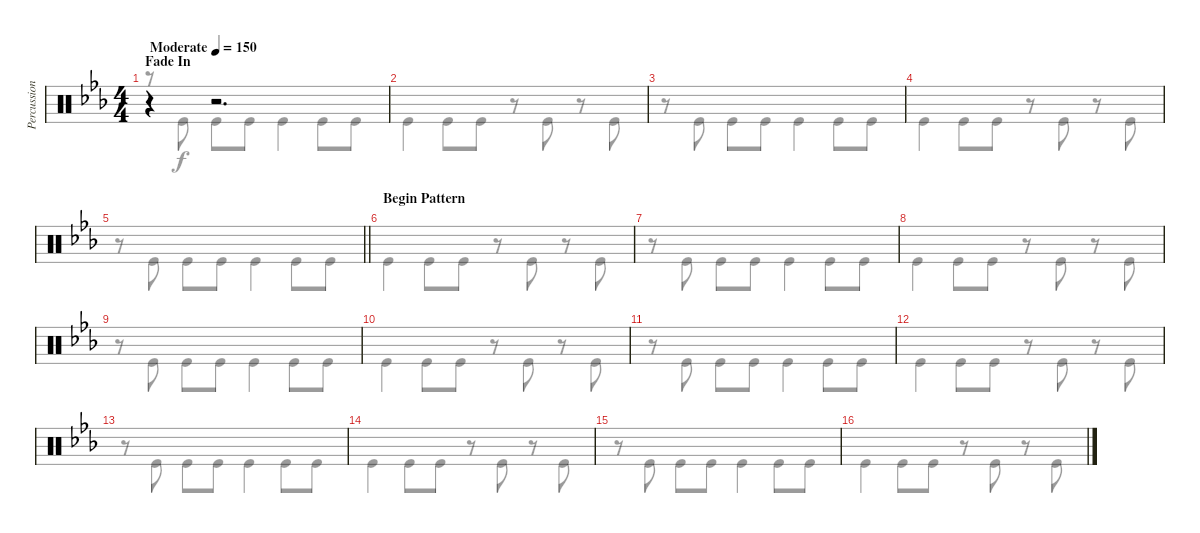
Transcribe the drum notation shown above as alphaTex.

\track ("Percussion" "Percussion") {instrument percussion}
\staff {score}
\articulation defaults
\voice
\ts (4 4)
\section ("" "Fade In")
\tempo (150 "Moderate")
\clef neutral
\ks cminor
r.4{dy f volume 0} r.2{d volume 7} |
|
|
|
\barLineRight lightlight
|
\section ("" "Begin Pattern")
|
|
|
|
|
|
|
|
|
|
\voice
\clef neutral
\ottava regular
\simile none
\ks cminor
r.8{dy f} "Kick (hit)".8 "Kick (hit)".8 "Kick (hit)".8 "Kick (hit)".4 "Kick (hit)".8 "Kick (hit)".8 |
"Kick (hit)".4 "Kick (hit)".8 "Kick (hit)".8 r.8 "Kick (hit)".8 r.8 "Kick (hit)".8 |
r.8 "Kick (hit)".8 "Kick (hit)".8 "Kick (hit)".8 "Kick (hit)".4 "Kick (hit)".8 "Kick (hit)".8 |
"Kick (hit)".4 "Kick (hit)".8 "Kick (hit)".8 r.8 "Kick (hit)".8 r.8 "Kick (hit)".8 |
\barLineRight lightlight
r.8 "Kick (hit)".8 "Kick (hit)".8 "Kick (hit)".8 "Kick (hit)".4 "Kick (hit)".8 "Kick (hit)".8 |
"Kick (hit)".4 "Kick (hit)".8 "Kick (hit)".8 r.8 "Kick (hit)".8 r.8 "Kick (hit)".8 |
r.8 "Kick (hit)".8 "Kick (hit)".8 "Kick (hit)".8 "Kick (hit)".4 "Kick (hit)".8 "Kick (hit)".8 |
"Kick (hit)".4 "Kick (hit)".8 "Kick (hit)".8 r.8 "Kick (hit)".8 r.8 "Kick (hit)".8 |
r.8 "Kick (hit)".8 "Kick (hit)".8 "Kick (hit)".8 "Kick (hit)".4 "Kick (hit)".8 "Kick (hit)".8 |
"Kick (hit)".4 "Kick (hit)".8 "Kick (hit)".8 r.8 "Kick (hit)".8 r.8 "Kick (hit)".8 |
r.8 "Kick (hit)".8 "Kick (hit)".8 "Kick (hit)".8 "Kick (hit)".4 "Kick (hit)".8 "Kick (hit)".8 |
"Kick (hit)".4 "Kick (hit)".8 "Kick (hit)".8 r.8 "Kick (hit)".8 r.8 "Kick (hit)".8 |
r.8 "Kick (hit)".8 "Kick (hit)".8 "Kick (hit)".8 "Kick (hit)".4 "Kick (hit)".8 "Kick (hit)".8 |
"Kick (hit)".4 "Kick (hit)".8 "Kick (hit)".8 r.8 "Kick (hit)".8 r.8 "Kick (hit)".8 |
r.8 "Kick (hit)".8 "Kick (hit)".8 "Kick (hit)".8 "Kick (hit)".4 "Kick (hit)".8 "Kick (hit)".8 |
"Kick (hit)".4 "Kick (hit)".8 "Kick (hit)".8 r.8 "Kick (hit)".8 r.8 "Kick (hit)".8
